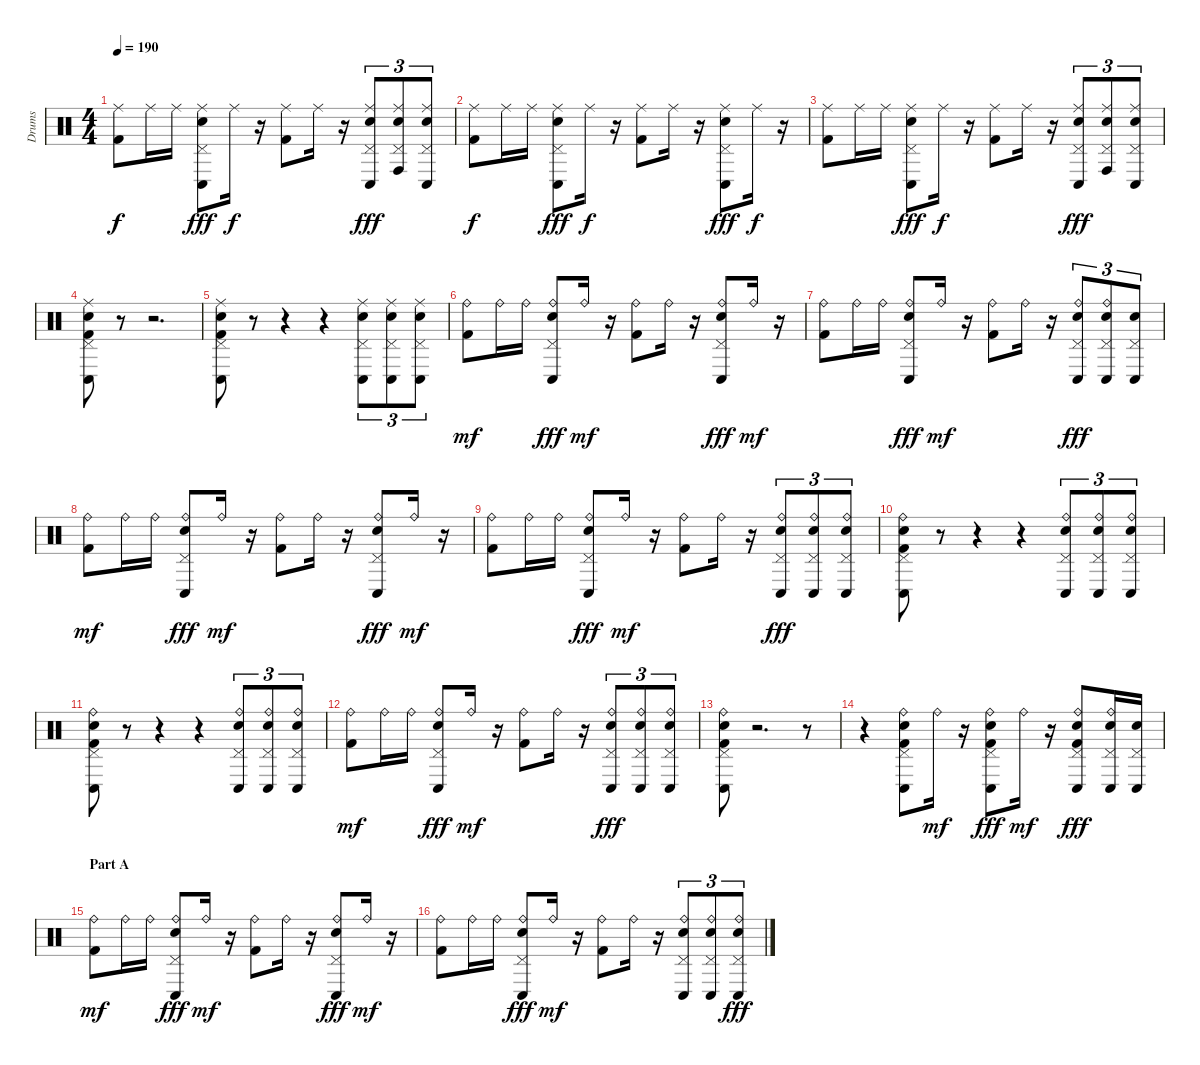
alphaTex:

\track ("Drums" "Drums") {instrument percussion}
\staff {score}
\articulation defaults
\ts (4 4)
\tempo 190
\clef neutral
\ks c
("Ride (middle)" "Kick (hit) 2").8{dy f} "Ride (middle)".16 "Ride (middle)".16 ("Ride (middle)" "Pedal Hi-Hat (hit)" "Conga low (hit)" "Electric Snare (hit)").8{dy fff} "Ride (middle)".16{dy f} r.16 ("Ride (middle)" "Kick (hit) 2").8 "Ride (middle)".16 r.16 ("Ride (middle)" "Pedal Hi-Hat (hit)" "Conga low (hit)" "Electric Snare (hit)").8{tu (3 2) dy fff} ("Ride (middle)" "Pedal Hi-Hat (hit)" "Conga high (hit)" "Electric Snare (hit)").8{tu (3 2)} ("Ride (middle)" "Pedal Hi-Hat (hit)" "Conga low (hit)" "Electric Snare (hit)").8{tu (3 2)} |
("Ride (middle)" "Kick (hit) 2").8{dy f} "Ride (middle)".16 "Ride (middle)".16 ("Ride (middle)" "Pedal Hi-Hat (hit)" "Conga low (hit)" "Electric Snare (hit)").8{dy fff} "Ride (middle)".16{dy f} r.16 ("Ride (middle)" "Kick (hit) 2").8 "Ride (middle)".16 r.16 ("Ride (middle)" "Pedal Hi-Hat (hit)" "Conga low (hit)" "Electric Snare (hit)").8{dy fff} "Ride (middle)".16{dy f} r.16 |
("Ride (middle)" "Kick (hit) 2").8 "Ride (middle)".16 "Ride (middle)".16 ("Ride (middle)" "Pedal Hi-Hat (hit)" "Conga low (hit)" "Electric Snare (hit)").8{dy fff} "Ride (middle)".16{dy f} r.16 ("Ride (middle)" "Kick (hit) 2").8 "Ride (middle)".16 r.16 ("Ride (middle)" "Pedal Hi-Hat (hit)" "Conga low (hit)" "Electric Snare (hit)").8{tu (3 2) dy fff} ("Ride (middle)" "Pedal Hi-Hat (hit)" "Conga high (hit)" "Electric Snare (hit)").8{tu (3 2)} ("Ride (middle)" "Pedal Hi-Hat (hit)" "Conga low (hit)" "Electric Snare (hit)").8{tu (3 2)} |
("Ride (middle)" "Pedal Hi-Hat (hit)" "Conga low (hit)" "Electric Snare (hit)" "Kick (hit) 2").8 r.8 r.2{d} |
("Ride (middle)" "Pedal Hi-Hat (hit)" "Conga low (hit)" "Electric Snare (hit)" "Kick (hit) 2").8 r.8 r.4 r.4 ("Ride (middle)" "Pedal Hi-Hat (hit)" "Conga low (hit)" "Electric Snare (hit)").8{tu (3 2)} ("Ride (middle)" "Pedal Hi-Hat (hit)" "Conga low (hit)" "Electric Snare (hit)").8{tu (3 2)} ("Ride (middle)" "Pedal Hi-Hat (hit)" "Conga low (hit)" "Electric Snare (hit)").8{tu (3 2)} |
("Ride (bell)" "Kick (hit) 2").8{dy mf} "Ride (bell)".16 "Ride (bell)".16 ("Ride (bell)" "Pedal Hi-Hat (hit)" "Conga low (hit)" "Electric Snare (hit)").8{dy fff} "Ride (bell)".16{dy mf} r.16 ("Ride (bell)" "Kick (hit) 2").8 "Ride (bell)".16 r.16 ("Ride (bell)" "Pedal Hi-Hat (hit)" "Conga low (hit)" "Electric Snare (hit)").8{dy fff} "Ride (bell)".16{dy mf} r.16 |
("Ride (bell)" "Kick (hit) 2").8 "Ride (bell)".16 "Ride (bell)".16 ("Ride (bell)" "Pedal Hi-Hat (hit)" "Conga low (hit)" "Electric Snare (hit)").8{dy fff} "Ride (bell)".16{dy mf} r.16 ("Ride (bell)" "Kick (hit) 2").8 "Ride (bell)".16 r.16 ("Ride (bell)" "Pedal Hi-Hat (hit)" "Conga low (hit)" "Electric Snare (hit)").8{tu (3 2) dy fff} ("Ride (bell)" "Pedal Hi-Hat (hit)" "Conga low (hit)" "Electric Snare (hit)").8{tu (3 2)} ("Pedal Hi-Hat (hit)" "Conga low (hit)" "Electric Snare (hit)").8{tu (3 2)} |
("Ride (bell)" "Kick (hit) 2").8{dy mf} "Ride (bell)".16 "Ride (bell)".16 ("Ride (bell)" "Pedal Hi-Hat (hit)" "Conga low (hit)" "Electric Snare (hit)").8{dy fff} "Ride (bell)".16{dy mf} r.16 ("Ride (bell)" "Kick (hit) 2").8 "Ride (bell)".16 r.16 ("Ride (bell)" "Pedal Hi-Hat (hit)" "Conga low (hit)" "Electric Snare (hit)").8{dy fff} "Ride (bell)".16{dy mf} r.16 |
("Ride (bell)" "Kick (hit) 2").8 "Ride (bell)".16 "Ride (bell)".16 ("Ride (bell)" "Pedal Hi-Hat (hit)" "Conga low (hit)" "Electric Snare (hit)").8{dy fff} "Ride (bell)".16{dy mf} r.16 ("Ride (bell)" "Kick (hit) 2").8 "Ride (bell)".16 r.16 ("Ride (bell)" "Pedal Hi-Hat (hit)" "Conga low (hit)" "Electric Snare (hit)").8{tu (3 2) dy fff} ("Ride (bell)" "Pedal Hi-Hat (hit)" "Conga low (hit)" "Electric Snare (hit)").8{tu (3 2)} ("Ride (bell)" "Pedal Hi-Hat (hit)" "Conga low (hit)" "Electric Snare (hit)").8{tu (3 2)} |
("Ride (bell)" "Pedal Hi-Hat (hit)" "Conga low (hit)" "Electric Snare (hit)" "Kick (hit) 2").8 r.8 r.4 r.4 ("Ride (bell)" "Pedal Hi-Hat (hit)" "Conga low (hit)" "Electric Snare (hit)").8{tu (3 2)} ("Ride (bell)" "Pedal Hi-Hat (hit)" "Conga low (hit)" "Electric Snare (hit)").8{tu (3 2)} ("Ride (bell)" "Pedal Hi-Hat (hit)" "Conga low (hit)" "Electric Snare (hit)").8{tu (3 2)} |
("Ride (bell)" "Pedal Hi-Hat (hit)" "Conga low (hit)" "Electric Snare (hit)" "Kick (hit) 2").8 r.8 r.4 r.4 ("Ride (bell)" "Pedal Hi-Hat (hit)" "Conga low (hit)" "Electric Snare (hit)").8{tu (3 2)} ("Ride (bell)" "Pedal Hi-Hat (hit)" "Conga low (hit)" "Electric Snare (hit)").8{tu (3 2)} ("Ride (bell)" "Pedal Hi-Hat (hit)" "Conga low (hit)" "Electric Snare (hit)").8{tu (3 2)} |
("Ride (bell)" "Kick (hit) 2").8{dy mf} "Ride (bell)".16 "Ride (bell)".16 ("Ride (bell)" "Pedal Hi-Hat (hit)" "Conga low (hit)" "Electric Snare (hit)").8{dy fff} "Ride (bell)".16{dy mf} r.16 ("Ride (bell)" "Kick (hit) 2").8 "Ride (bell)".16 r.16 ("Ride (bell)" "Pedal Hi-Hat (hit)" "Conga low (hit)" "Electric Snare (hit)").8{tu (3 2) dy fff} ("Ride (bell)" "Pedal Hi-Hat (hit)" "Conga low (hit)" "Electric Snare (hit)").8{tu (3 2)} ("Ride (bell)" "Pedal Hi-Hat (hit)" "Conga low (hit)" "Electric Snare (hit)").8{tu (3 2)} |
("Ride (bell)" "Pedal Hi-Hat (hit)" "Conga low (hit)" "Electric Snare (hit)" "Kick (hit) 2").8 r.2{d} r.8 |
r.4 ("Ride (bell)" "Pedal Hi-Hat (hit)" "Conga low (hit)" "Electric Snare (hit)" "Kick (hit) 2").8 "Ride (bell)".16{dy mf} r.16 ("Ride (bell)" "Pedal Hi-Hat (hit)" "Conga low (hit)" "Electric Snare (hit)" "Kick (hit) 2").8{dy fff} "Ride (bell)".16{dy mf} r.16 ("Ride (bell)" "Pedal Hi-Hat (hit)" "Conga low (hit)" "Electric Snare (hit)" "Kick (hit) 2").8{dy fff} ("Ride (bell)" "Pedal Hi-Hat (hit)" "Conga low (hit)" "Electric Snare (hit)").16 ("Pedal Hi-Hat (hit)" "Conga low (hit)" "Electric Snare (hit)").16 |
\section ("" "Part A")
("Ride (bell)" "Kick (hit) 2").8{dy mf} "Ride (bell)".16 "Ride (bell)".16 ("Ride (bell)" "Pedal Hi-Hat (hit)" "Conga low (hit)" "Electric Snare (hit)").8{dy fff} "Ride (bell)".16{dy mf} r.16 ("Ride (bell)" "Kick (hit) 2").8 "Ride (bell)".16 r.16 ("Ride (bell)" "Pedal Hi-Hat (hit)" "Conga low (hit)" "Electric Snare (hit)").8{dy fff} "Ride (bell)".16{dy mf} r.16 |
("Ride (bell)" "Kick (hit) 2").8 "Ride (bell)".16 "Ride (bell)".16 ("Ride (bell)" "Pedal Hi-Hat (hit)" "Conga low (hit)" "Electric Snare (hit)").8{dy fff} "Ride (bell)".16{dy mf} r.16 ("Ride (bell)" "Kick (hit) 2").8 "Ride (bell)".16 r.16 ("Ride (bell)" "Pedal Hi-Hat (hit)" "Conga low (hit)" "Electric Snare (hit)").8{tu (3 2)} ("Ride (bell)" "Pedal Hi-Hat (hit)" "Conga low (hit)" "Electric Snare (hit)").8{tu (3 2)} ("Ride (bell)" "Pedal Hi-Hat (hit)" "Conga low (hit)" "Electric Snare (hit)").8{tu (3 2) dy fff}
